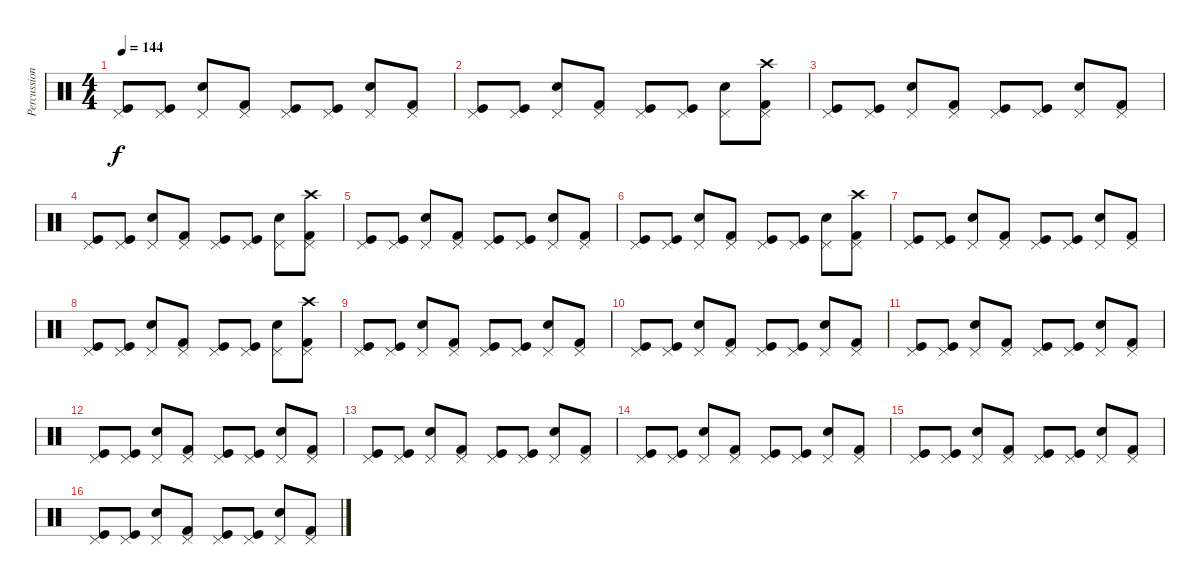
\track ("Percussion" "Percussion") {instrument percussion}
\staff {score}
\articulation defaults
\ts (4 4)
\tempo 144
\clef neutral
\ks c
("Pedal Hi-Hat (hit)" "Kick (hit)").8{dy f} ("Pedal Hi-Hat (hit)" "Kick (hit)").8 ("Pedal Hi-Hat (hit)" "Snare (hit) 2").8 ("Pedal Hi-Hat (hit)" "Kick (hit) 2").8 ("Pedal Hi-Hat (hit)" "Kick (hit)").8 ("Pedal Hi-Hat (hit)" "Kick (hit)").8 ("Pedal Hi-Hat (hit)" "Snare (hit) 2").8 ("Pedal Hi-Hat (hit)" "Kick (hit) 2").8 |
("Pedal Hi-Hat (hit)" "Kick (hit)").8 ("Pedal Hi-Hat (hit)" "Kick (hit)").8 ("Pedal Hi-Hat (hit)" "Snare (hit) 2").8 ("Pedal Hi-Hat (hit)" "Kick (hit) 2").8 ("Pedal Hi-Hat (hit)" "Kick (hit)").8 ("Pedal Hi-Hat (hit)" "Kick (hit)").8 ("Pedal Hi-Hat (hit)" "Snare (hit) 2").8 ("Pedal Hi-Hat (hit)" "Kick (hit) 2" "Crash high (hit)").8 |
("Pedal Hi-Hat (hit)" "Kick (hit)").8 ("Pedal Hi-Hat (hit)" "Kick (hit)").8 ("Pedal Hi-Hat (hit)" "Snare (hit) 2").8 ("Pedal Hi-Hat (hit)" "Kick (hit) 2").8 ("Pedal Hi-Hat (hit)" "Kick (hit)").8 ("Pedal Hi-Hat (hit)" "Kick (hit)").8 ("Pedal Hi-Hat (hit)" "Snare (hit) 2").8 ("Pedal Hi-Hat (hit)" "Kick (hit) 2").8 |
("Pedal Hi-Hat (hit)" "Kick (hit)").8 ("Pedal Hi-Hat (hit)" "Kick (hit)").8 ("Pedal Hi-Hat (hit)" "Snare (hit) 2").8 ("Pedal Hi-Hat (hit)" "Kick (hit) 2").8 ("Pedal Hi-Hat (hit)" "Kick (hit)").8 ("Pedal Hi-Hat (hit)" "Kick (hit)").8 ("Pedal Hi-Hat (hit)" "Snare (hit) 2").8 ("Pedal Hi-Hat (hit)" "Kick (hit) 2" "Crash high (hit)").8 |
("Pedal Hi-Hat (hit)" "Kick (hit)").8 ("Pedal Hi-Hat (hit)" "Kick (hit)").8 ("Pedal Hi-Hat (hit)" "Snare (hit) 2").8 ("Pedal Hi-Hat (hit)" "Kick (hit) 2").8 ("Pedal Hi-Hat (hit)" "Kick (hit)").8 ("Pedal Hi-Hat (hit)" "Kick (hit)").8 ("Pedal Hi-Hat (hit)" "Snare (hit) 2").8 ("Pedal Hi-Hat (hit)" "Kick (hit) 2").8 |
("Pedal Hi-Hat (hit)" "Kick (hit)").8 ("Pedal Hi-Hat (hit)" "Kick (hit)").8 ("Pedal Hi-Hat (hit)" "Snare (hit) 2").8 ("Pedal Hi-Hat (hit)" "Kick (hit) 2").8 ("Pedal Hi-Hat (hit)" "Kick (hit)").8 ("Pedal Hi-Hat (hit)" "Kick (hit)").8 ("Pedal Hi-Hat (hit)" "Snare (hit) 2").8 ("Pedal Hi-Hat (hit)" "Kick (hit) 2" "Crash high (hit)").8 |
("Pedal Hi-Hat (hit)" "Kick (hit)").8 ("Pedal Hi-Hat (hit)" "Kick (hit)").8 ("Pedal Hi-Hat (hit)" "Snare (hit) 2").8 ("Pedal Hi-Hat (hit)" "Kick (hit) 2").8 ("Pedal Hi-Hat (hit)" "Kick (hit)").8 ("Pedal Hi-Hat (hit)" "Kick (hit)").8 ("Pedal Hi-Hat (hit)" "Snare (hit) 2").8 ("Pedal Hi-Hat (hit)" "Kick (hit) 2").8 |
("Pedal Hi-Hat (hit)" "Kick (hit)").8 ("Pedal Hi-Hat (hit)" "Kick (hit)").8 ("Pedal Hi-Hat (hit)" "Snare (hit) 2").8 ("Pedal Hi-Hat (hit)" "Kick (hit) 2").8 ("Pedal Hi-Hat (hit)" "Kick (hit)").8 ("Pedal Hi-Hat (hit)" "Kick (hit)").8 ("Pedal Hi-Hat (hit)" "Snare (hit) 2").8 ("Pedal Hi-Hat (hit)" "Kick (hit) 2" "Crash high (hit)").8 |
("Pedal Hi-Hat (hit)" "Kick (hit)").8 ("Pedal Hi-Hat (hit)" "Kick (hit)").8 ("Pedal Hi-Hat (hit)" "Snare (hit) 2").8 ("Pedal Hi-Hat (hit)" "Kick (hit) 2").8 ("Pedal Hi-Hat (hit)" "Kick (hit)").8 ("Pedal Hi-Hat (hit)" "Kick (hit)").8 ("Pedal Hi-Hat (hit)" "Snare (hit) 2").8 ("Pedal Hi-Hat (hit)" "Kick (hit) 2").8 |
("Pedal Hi-Hat (hit)" "Kick (hit)").8 ("Pedal Hi-Hat (hit)" "Kick (hit)").8 ("Pedal Hi-Hat (hit)" "Snare (hit) 2").8 ("Pedal Hi-Hat (hit)" "Kick (hit) 2").8 ("Pedal Hi-Hat (hit)" "Kick (hit)").8 ("Pedal Hi-Hat (hit)" "Kick (hit)").8 ("Pedal Hi-Hat (hit)" "Snare (hit) 2").8 ("Pedal Hi-Hat (hit)" "Kick (hit) 2").8 |
("Pedal Hi-Hat (hit)" "Kick (hit)").8 ("Pedal Hi-Hat (hit)" "Kick (hit)").8 ("Pedal Hi-Hat (hit)" "Snare (hit) 2").8 ("Pedal Hi-Hat (hit)" "Kick (hit) 2").8 ("Pedal Hi-Hat (hit)" "Kick (hit)").8 ("Pedal Hi-Hat (hit)" "Kick (hit)").8 ("Pedal Hi-Hat (hit)" "Snare (hit) 2").8 ("Pedal Hi-Hat (hit)" "Kick (hit) 2").8 |
("Pedal Hi-Hat (hit)" "Kick (hit)").8 ("Pedal Hi-Hat (hit)" "Kick (hit)").8 ("Pedal Hi-Hat (hit)" "Snare (hit) 2").8 ("Pedal Hi-Hat (hit)" "Kick (hit) 2").8 ("Pedal Hi-Hat (hit)" "Kick (hit)").8 ("Pedal Hi-Hat (hit)" "Kick (hit)").8 ("Pedal Hi-Hat (hit)" "Snare (hit) 2").8 ("Pedal Hi-Hat (hit)" "Kick (hit) 2").8 |
("Pedal Hi-Hat (hit)" "Kick (hit)").8 ("Pedal Hi-Hat (hit)" "Kick (hit)").8 ("Pedal Hi-Hat (hit)" "Snare (hit) 2").8 ("Pedal Hi-Hat (hit)" "Kick (hit) 2").8 ("Pedal Hi-Hat (hit)" "Kick (hit)").8 ("Pedal Hi-Hat (hit)" "Kick (hit)").8 ("Pedal Hi-Hat (hit)" "Snare (hit) 2").8 ("Pedal Hi-Hat (hit)" "Kick (hit) 2").8 |
("Pedal Hi-Hat (hit)" "Kick (hit)").8 ("Pedal Hi-Hat (hit)" "Kick (hit)").8 ("Pedal Hi-Hat (hit)" "Snare (hit) 2").8 ("Pedal Hi-Hat (hit)" "Kick (hit) 2").8 ("Pedal Hi-Hat (hit)" "Kick (hit)").8 ("Pedal Hi-Hat (hit)" "Kick (hit)").8 ("Pedal Hi-Hat (hit)" "Snare (hit) 2").8 ("Pedal Hi-Hat (hit)" "Kick (hit) 2").8 |
("Pedal Hi-Hat (hit)" "Kick (hit)").8 ("Pedal Hi-Hat (hit)" "Kick (hit)").8 ("Pedal Hi-Hat (hit)" "Snare (hit) 2").8 ("Pedal Hi-Hat (hit)" "Kick (hit) 2").8 ("Pedal Hi-Hat (hit)" "Kick (hit)").8 ("Pedal Hi-Hat (hit)" "Kick (hit)").8 ("Pedal Hi-Hat (hit)" "Snare (hit) 2").8 ("Pedal Hi-Hat (hit)" "Kick (hit) 2").8 |
("Pedal Hi-Hat (hit)" "Kick (hit)").8 ("Pedal Hi-Hat (hit)" "Kick (hit)").8 ("Pedal Hi-Hat (hit)" "Snare (hit) 2").8 ("Pedal Hi-Hat (hit)" "Kick (hit) 2").8 ("Pedal Hi-Hat (hit)" "Kick (hit)").8 ("Pedal Hi-Hat (hit)" "Kick (hit)").8 ("Pedal Hi-Hat (hit)" "Snare (hit) 2").8 ("Pedal Hi-Hat (hit)" "Kick (hit) 2").8
